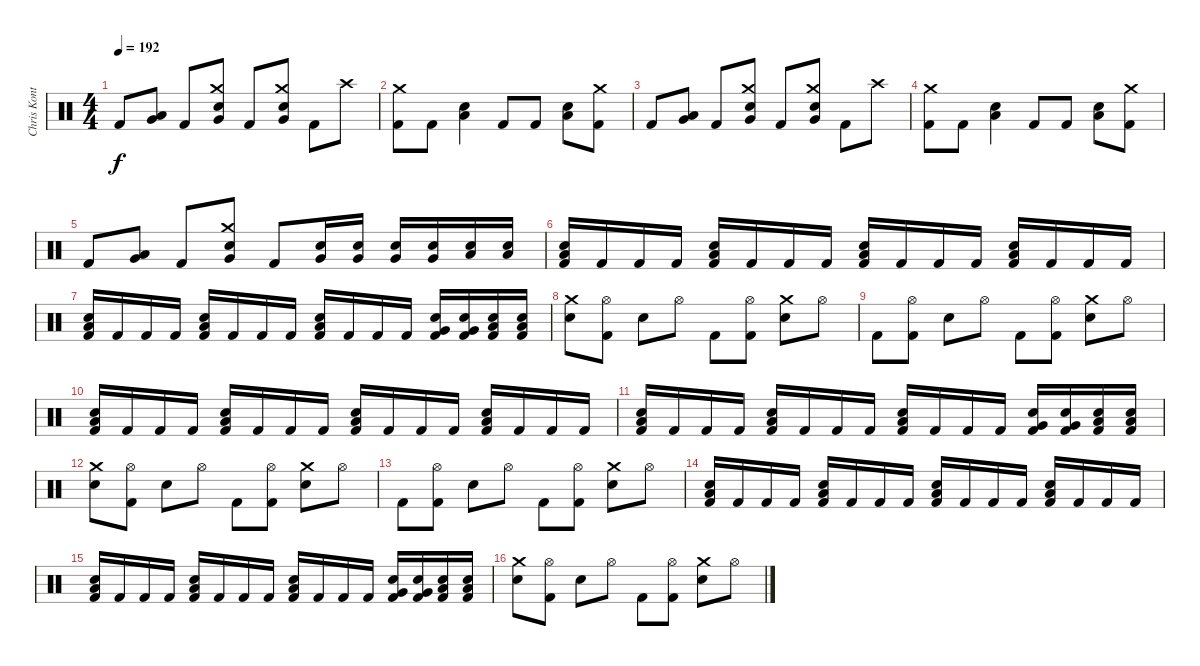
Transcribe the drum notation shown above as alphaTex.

\track ("Chris Kontos" "Chris Kont") {instrument percussion}
\staff {score}
\articulation defaults
\ts (4 4)
\tempo 192
\clef neutral
\ks c "Kick (hit) 2".8{dy f}
("Very Low Tom (hit)" "Low Floor Tom (hit)").8 "Kick (hit) 2".8 ("Very Low Tom (hit)" "Crash medium (hit)" "Electric Snare (hit)").8 "Kick (hit) 2".8 ("Very Low Tom (hit)" "Crash medium (hit)" "Electric Snare (hit)").8 "Kick (hit) 2".8 "Crash high (hit)".8 |
("Crash medium (hit)" "Kick (hit) 2").8 "Kick (hit) 2".8 ("Low Floor Tom (hit)" "Electric Snare (hit)").4 "Kick (hit) 2".8 "Kick (hit) 2".8 ("Low Floor Tom (hit)" "Electric Snare (hit)").8 ("Crash medium (hit)" "Kick (hit) 2").8 |
"Kick (hit) 2".8 ("Very Low Tom (hit)" "Low Floor Tom (hit)").8 "Kick (hit) 2".8 ("Very Low Tom (hit)" "Crash medium (hit)" "Electric Snare (hit)").8 "Kick (hit) 2".8 ("Very Low Tom (hit)" "Crash medium (hit)" "Electric Snare (hit)").8 "Kick (hit) 2".8 "Crash high (hit)".8 |
("Crash medium (hit)" "Kick (hit) 2").8 "Kick (hit) 2".8 ("Low Floor Tom (hit)" "Electric Snare (hit)").4 "Kick (hit) 2".8 "Kick (hit) 2".8 ("Low Floor Tom (hit)" "Electric Snare (hit)").8 ("Crash medium (hit)" "Kick (hit) 2").8 |
"Kick (hit) 2".8 ("Very Low Tom (hit)" "Low Floor Tom (hit)").8 "Kick (hit) 2".8 ("Very Low Tom (hit)" "Crash medium (hit)" "Electric Snare (hit)").8 "Kick (hit) 2".8 ("Very Low Tom (hit)" "Electric Snare (hit)").16 ("Very Low Tom (hit)" "Electric Snare (hit)").16 ("Very Low Tom (hit)" "Electric Snare (hit)").16 ("Very Low Tom (hit)" "Electric Snare (hit)").16 ("Low Floor Tom (hit)" "Electric Snare (hit)").16 ("Low Floor Tom (hit)" "Electric Snare (hit)").16 |
("Low Floor Tom (hit)" "Electric Snare (hit)" "Kick (hit) 2").16 "Kick (hit) 2".16 "Kick (hit) 2".16 "Kick (hit) 2".16 ("Low Floor Tom (hit)" "Electric Snare (hit)" "Kick (hit) 2").16 "Kick (hit) 2".16 "Kick (hit) 2".16 "Kick (hit) 2".16 ("Low Floor Tom (hit)" "Electric Snare (hit)" "Kick (hit) 2").16 "Kick (hit) 2".16 "Kick (hit) 2".16 "Kick (hit) 2".16 ("Low Floor Tom (hit)" "Electric Snare (hit)" "Kick (hit) 2").16 "Kick (hit) 2".16 "Kick (hit) 2".16 "Kick (hit) 2".16 |
("Low Floor Tom (hit)" "Electric Snare (hit)" "Kick (hit) 2").16 "Kick (hit) 2".16 "Kick (hit) 2".16 "Kick (hit) 2".16 ("Low Floor Tom (hit)" "Electric Snare (hit)" "Kick (hit) 2").16 "Kick (hit) 2".16 "Kick (hit) 2".16 "Kick (hit) 2".16 ("Low Floor Tom (hit)" "Electric Snare (hit)" "Kick (hit) 2").16 "Kick (hit) 2".16 "Kick (hit) 2".16 "Kick (hit) 2".16 ("Very Low Tom (hit)" "Electric Snare (hit)" "Kick (hit) 2").16 ("Very Low Tom (hit)" "Electric Snare (hit)" "Kick (hit) 2").16 ("Low Floor Tom (hit)" "Electric Snare (hit)" "Kick (hit) 2").16 ("Low Floor Tom (hit)" "Electric Snare (hit)" "Kick (hit) 2").16 |
("Crash medium (hit)" "Electric Snare (hit)").8 ("Hi-Hat (open)" "Kick (hit) 2").8 "Electric Snare (hit)".8 "Hi-Hat (open)".8 "Kick (hit) 2".8 ("Hi-Hat (open)" "Kick (hit) 2").8 ("Crash medium (hit)" "Electric Snare (hit)").8 "Hi-Hat (open)".8 |
"Kick (hit) 2".8 ("Hi-Hat (open)" "Kick (hit) 2").8 "Electric Snare (hit)".8 "Hi-Hat (open)".8 "Kick (hit) 2".8 ("Hi-Hat (open)" "Kick (hit) 2").8 ("Crash medium (hit)" "Electric Snare (hit)").8 "Hi-Hat (open)".8 |
("Low Floor Tom (hit)" "Electric Snare (hit)" "Kick (hit) 2").16 "Kick (hit) 2".16 "Kick (hit) 2".16 "Kick (hit) 2".16 ("Low Floor Tom (hit)" "Electric Snare (hit)" "Kick (hit) 2").16 "Kick (hit) 2".16 "Kick (hit) 2".16 "Kick (hit) 2".16 ("Low Floor Tom (hit)" "Electric Snare (hit)" "Kick (hit) 2").16 "Kick (hit) 2".16 "Kick (hit) 2".16 "Kick (hit) 2".16 ("Low Floor Tom (hit)" "Electric Snare (hit)" "Kick (hit) 2").16 "Kick (hit) 2".16 "Kick (hit) 2".16 "Kick (hit) 2".16 |
("Low Floor Tom (hit)" "Electric Snare (hit)" "Kick (hit) 2").16 "Kick (hit) 2".16 "Kick (hit) 2".16 "Kick (hit) 2".16 ("Low Floor Tom (hit)" "Electric Snare (hit)" "Kick (hit) 2").16 "Kick (hit) 2".16 "Kick (hit) 2".16 "Kick (hit) 2".16 ("Low Floor Tom (hit)" "Electric Snare (hit)" "Kick (hit) 2").16 "Kick (hit) 2".16 "Kick (hit) 2".16 "Kick (hit) 2".16 ("Very Low Tom (hit)" "Electric Snare (hit)" "Kick (hit) 2").16 ("Very Low Tom (hit)" "Electric Snare (hit)" "Kick (hit) 2").16 ("Low Floor Tom (hit)" "Electric Snare (hit)" "Kick (hit) 2").16 ("Low Floor Tom (hit)" "Electric Snare (hit)" "Kick (hit) 2").16 |
("Crash medium (hit)" "Electric Snare (hit)").8 ("Hi-Hat (open)" "Kick (hit) 2").8 "Electric Snare (hit)".8 "Hi-Hat (open)".8 "Kick (hit) 2".8 ("Hi-Hat (open)" "Kick (hit) 2").8 ("Crash medium (hit)" "Electric Snare (hit)").8 "Hi-Hat (open)".8 |
"Kick (hit) 2".8 ("Hi-Hat (open)" "Kick (hit) 2").8 "Electric Snare (hit)".8 "Hi-Hat (open)".8 "Kick (hit) 2".8 ("Hi-Hat (open)" "Kick (hit) 2").8 ("Crash medium (hit)" "Electric Snare (hit)").8 "Hi-Hat (open)".8 |
("Low Floor Tom (hit)" "Electric Snare (hit)" "Kick (hit) 2").16 "Kick (hit) 2".16 "Kick (hit) 2".16 "Kick (hit) 2".16 ("Low Floor Tom (hit)" "Electric Snare (hit)" "Kick (hit) 2").16 "Kick (hit) 2".16 "Kick (hit) 2".16 "Kick (hit) 2".16 ("Low Floor Tom (hit)" "Electric Snare (hit)" "Kick (hit) 2").16 "Kick (hit) 2".16 "Kick (hit) 2".16 "Kick (hit) 2".16 ("Low Floor Tom (hit)" "Electric Snare (hit)" "Kick (hit) 2").16 "Kick (hit) 2".16 "Kick (hit) 2".16 "Kick (hit) 2".16 |
("Low Floor Tom (hit)" "Electric Snare (hit)" "Kick (hit) 2").16 "Kick (hit) 2".16 "Kick (hit) 2".16 "Kick (hit) 2".16 ("Low Floor Tom (hit)" "Electric Snare (hit)" "Kick (hit) 2").16 "Kick (hit) 2".16 "Kick (hit) 2".16 "Kick (hit) 2".16 ("Low Floor Tom (hit)" "Electric Snare (hit)" "Kick (hit) 2").16 "Kick (hit) 2".16 "Kick (hit) 2".16 "Kick (hit) 2".16 ("Very Low Tom (hit)" "Electric Snare (hit)" "Kick (hit) 2").16 ("Very Low Tom (hit)" "Electric Snare (hit)" "Kick (hit) 2").16 ("Low Floor Tom (hit)" "Electric Snare (hit)" "Kick (hit) 2").16 ("Low Floor Tom (hit)" "Electric Snare (hit)" "Kick (hit) 2").16 |
("Crash medium (hit)" "Electric Snare (hit)").8 ("Hi-Hat (open)" "Kick (hit) 2").8 "Electric Snare (hit)".8 "Hi-Hat (open)".8 "Kick (hit) 2".8 ("Hi-Hat (open)" "Kick (hit) 2").8 ("Crash medium (hit)" "Electric Snare (hit)").8 "Hi-Hat (open)".8
